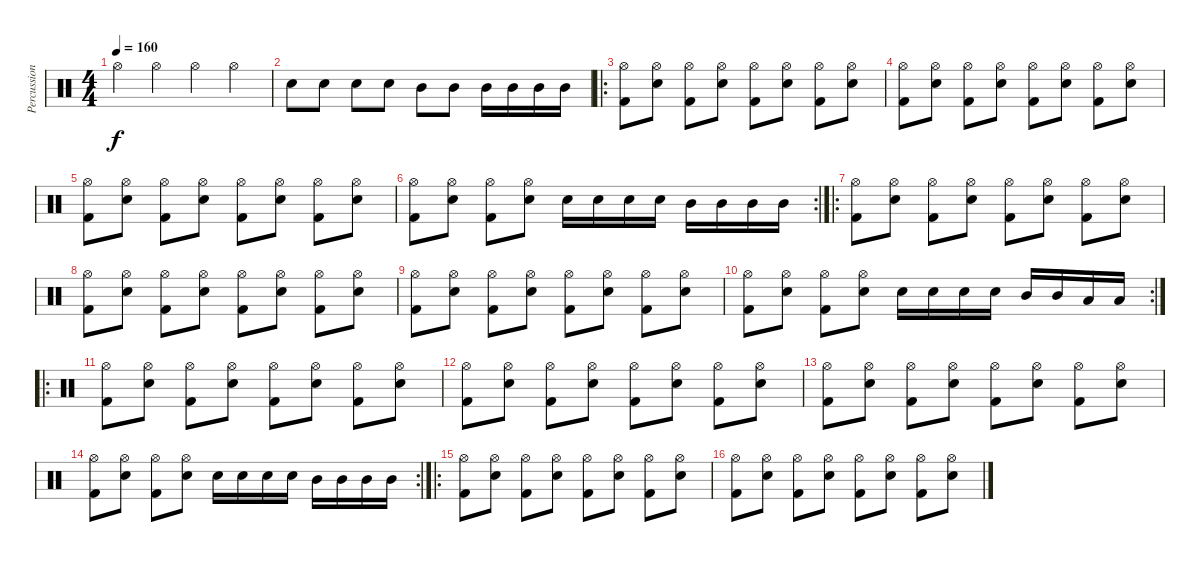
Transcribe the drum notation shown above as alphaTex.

\track ("Percussions" "Percussion") {instrument percussion}
\staff {score}
\articulation defaults
\ts (4 4)
\tempo 160
\clef neutral
\ks c "Hi-Hat (open)".4{dy f} "Hi-Hat (open)".4 "Hi-Hat (open)".4 "Hi-Hat (open)".4
|
"Snare (hit) 2".8 "Snare (hit) 2".8 "Snare (hit) 2".8 "Snare (hit) 2".8 "Mid Tom (hit)".8 "Mid Tom (hit)".8 "Mid Tom (hit)".16 "Mid Tom (hit)".16 "Mid Tom (hit)".16 "Mid Tom (hit)".16 |
\ro
("Kick (hit) 2" "Hi-Hat (open)").8 ("Snare (hit) 2" "Hi-Hat (open)").8 ("Kick (hit) 2" "Hi-Hat (open)").8 ("Snare (hit) 2" "Hi-Hat (open)").8 ("Kick (hit) 2" "Hi-Hat (open)").8 ("Snare (hit) 2" "Hi-Hat (open)").8 ("Kick (hit) 2" "Hi-Hat (open)").8 ("Snare (hit) 2" "Hi-Hat (open)").8 |
("Kick (hit) 2" "Hi-Hat (open)").8 ("Snare (hit) 2" "Hi-Hat (open)").8 ("Kick (hit) 2" "Hi-Hat (open)").8 ("Snare (hit) 2" "Hi-Hat (open)").8 ("Kick (hit) 2" "Hi-Hat (open)").8 ("Snare (hit) 2" "Hi-Hat (open)").8 ("Kick (hit) 2" "Hi-Hat (open)").8 ("Snare (hit) 2" "Hi-Hat (open)").8 |
("Kick (hit) 2" "Hi-Hat (open)").8 ("Snare (hit) 2" "Hi-Hat (open)").8 ("Kick (hit) 2" "Hi-Hat (open)").8 ("Snare (hit) 2" "Hi-Hat (open)").8 ("Kick (hit) 2" "Hi-Hat (open)").8 ("Snare (hit) 2" "Hi-Hat (open)").8 ("Kick (hit) 2" "Hi-Hat (open)").8 ("Snare (hit) 2" "Hi-Hat (open)").8 |
\rc 2
("Kick (hit) 2" "Hi-Hat (open)").8 ("Snare (hit) 2" "Hi-Hat (open)").8 ("Kick (hit) 2" "Hi-Hat (open)").8 ("Snare (hit) 2" "Hi-Hat (open)").8 "Snare (hit) 2".16 "Snare (hit) 2".16 "Snare (hit) 2".16 "Snare (hit) 2".16 "Mid Tom (hit)".16 "Mid Tom (hit)".16 "Mid Tom (hit)".16 "Mid Tom (hit)".16 |
\ro
("Kick (hit) 2" "Hi-Hat (open)").8 ("Snare (hit) 2" "Hi-Hat (open)").8 ("Kick (hit) 2" "Hi-Hat (open)").8 ("Snare (hit) 2" "Hi-Hat (open)").8 ("Kick (hit) 2" "Hi-Hat (open)").8 ("Snare (hit) 2" "Hi-Hat (open)").8 ("Kick (hit) 2" "Hi-Hat (open)").8 ("Snare (hit) 2" "Hi-Hat (open)").8 |
("Kick (hit) 2" "Hi-Hat (open)").8 ("Snare (hit) 2" "Hi-Hat (open)").8 ("Kick (hit) 2" "Hi-Hat (open)").8 ("Snare (hit) 2" "Hi-Hat (open)").8 ("Kick (hit) 2" "Hi-Hat (open)").8 ("Snare (hit) 2" "Hi-Hat (open)").8 ("Kick (hit) 2" "Hi-Hat (open)").8 ("Snare (hit) 2" "Hi-Hat (open)").8 |
("Kick (hit) 2" "Hi-Hat (open)").8 ("Snare (hit) 2" "Hi-Hat (open)").8 ("Kick (hit) 2" "Hi-Hat (open)").8 ("Snare (hit) 2" "Hi-Hat (open)").8 ("Kick (hit) 2" "Hi-Hat (open)").8 ("Snare (hit) 2" "Hi-Hat (open)").8 ("Kick (hit) 2" "Hi-Hat (open)").8 ("Snare (hit) 2" "Hi-Hat (open)").8 |
\rc 2
("Kick (hit) 2" "Hi-Hat (open)").8 ("Snare (hit) 2" "Hi-Hat (open)").8 ("Kick (hit) 2" "Hi-Hat (open)").8 ("Snare (hit) 2" "Hi-Hat (open)").8 "Snare (hit) 2".16 "Snare (hit) 2".16 "Snare (hit) 2".16 "Snare (hit) 2".16 "Mid Tom (hit)".16 "Mid Tom (hit)".16 "Low Tom (hit)".16 "Low Tom (hit)".16 |
\ro
("Kick (hit) 2" "Hi-Hat (open)").8 ("Snare (hit) 2" "Hi-Hat (open)").8 ("Kick (hit) 2" "Hi-Hat (open)").8 ("Snare (hit) 2" "Hi-Hat (open)").8 ("Kick (hit) 2" "Hi-Hat (open)").8 ("Snare (hit) 2" "Hi-Hat (open)").8 ("Kick (hit) 2" "Hi-Hat (open)").8 ("Snare (hit) 2" "Hi-Hat (open)").8 |
("Kick (hit) 2" "Hi-Hat (open)").8 ("Snare (hit) 2" "Hi-Hat (open)").8 ("Kick (hit) 2" "Hi-Hat (open)").8 ("Snare (hit) 2" "Hi-Hat (open)").8 ("Kick (hit) 2" "Hi-Hat (open)").8 ("Snare (hit) 2" "Hi-Hat (open)").8 ("Kick (hit) 2" "Hi-Hat (open)").8 ("Snare (hit) 2" "Hi-Hat (open)").8 |
("Kick (hit) 2" "Hi-Hat (open)").8 ("Snare (hit) 2" "Hi-Hat (open)").8 ("Kick (hit) 2" "Hi-Hat (open)").8 ("Snare (hit) 2" "Hi-Hat (open)").8 ("Kick (hit) 2" "Hi-Hat (open)").8 ("Snare (hit) 2" "Hi-Hat (open)").8 ("Kick (hit) 2" "Hi-Hat (open)").8 ("Snare (hit) 2" "Hi-Hat (open)").8 |
\rc 2
("Kick (hit) 2" "Hi-Hat (open)").8 ("Snare (hit) 2" "Hi-Hat (open)").8 ("Kick (hit) 2" "Hi-Hat (open)").8 ("Snare (hit) 2" "Hi-Hat (open)").8 "Snare (hit) 2".16 "Snare (hit) 2".16 "Snare (hit) 2".16 "Snare (hit) 2".16 "Mid Tom (hit)".16 "Mid Tom (hit)".16 "Mid Tom (hit)".16 "Mid Tom (hit)".16 |
\ro
("Kick (hit) 2" "Hi-Hat (open)").8 ("Snare (hit) 2" "Hi-Hat (open)").8 ("Kick (hit) 2" "Hi-Hat (open)").8 ("Snare (hit) 2" "Hi-Hat (open)").8 ("Kick (hit) 2" "Hi-Hat (open)").8 ("Snare (hit) 2" "Hi-Hat (open)").8 ("Kick (hit) 2" "Hi-Hat (open)").8 ("Snare (hit) 2" "Hi-Hat (open)").8 |
("Kick (hit) 2" "Hi-Hat (open)").8 ("Snare (hit) 2" "Hi-Hat (open)").8 ("Kick (hit) 2" "Hi-Hat (open)").8 ("Snare (hit) 2" "Hi-Hat (open)").8 ("Kick (hit) 2" "Hi-Hat (open)").8 ("Snare (hit) 2" "Hi-Hat (open)").8 ("Kick (hit) 2" "Hi-Hat (open)").8 ("Snare (hit) 2" "Hi-Hat (open)").8
